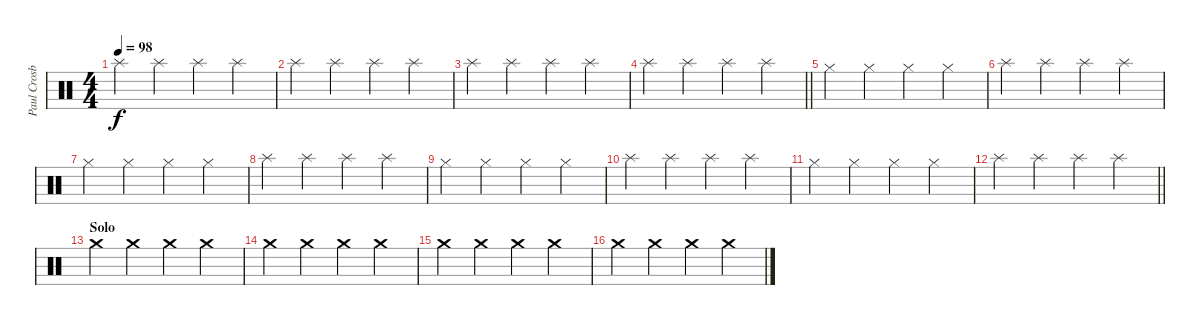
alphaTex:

\track ("Paul Crosby (Drums)" "Paul Crosb") {instrument percussion}
\staff {score}
\articulation defaults
\ts (4 4)
\tempo 98
\clef neutral
\ks c "Splash (hit)".4{dy f} "Splash (hit)".4 "Splash (hit)".4 "Splash (hit)".4
|
"Splash (hit)".4 "Splash (hit)".4 "Splash (hit)".4 "Splash (hit)".4 |
"Splash (hit)".4 "Splash (hit)".4 "Splash (hit)".4 "Splash (hit)".4 |
\barLineRight lightlight "Splash (hit)".4 "Splash (hit)".4 "Splash (hit)".4 "Splash (hit)".4
|
"Hi-Hat (closed)".4 "Hi-Hat (closed)".4 "Hi-Hat (closed)".4 "Hi-Hat (closed)".4 |
"Splash (hit)".4 "Splash (hit)".4 "Splash (hit)".4 "Splash (hit)".4 |
"Hi-Hat (closed)".4 "Hi-Hat (closed)".4 "Hi-Hat (closed)".4 "Hi-Hat (closed)".4 |
"Splash (hit)".4 "Splash (hit)".4 "Splash (hit)".4 "Splash (hit)".4 |
"Hi-Hat (closed)".4 "Hi-Hat (closed)".4 "Hi-Hat (closed)".4 "Hi-Hat (closed)".4 |
"Splash (hit)".4 "Splash (hit)".4 "Splash (hit)".4 "Splash (hit)".4 |
"Hi-Hat (closed)".4 "Hi-Hat (closed)".4 "Hi-Hat (closed)".4 "Hi-Hat (closed)".4 |
\barLineRight lightlight "Splash (hit)".4 "Splash (hit)".4 "Splash (hit)".4 "Splash (hit)".4
|
\section ("" "Solo")
"Crash medium (hit)".4 "Crash medium (hit)".4 "Crash medium (hit)".4 "Crash medium (hit)".4 |
"Crash medium (hit)".4 "Crash medium (hit)".4 "Crash medium (hit)".4 "Crash medium (hit)".4 |
"Crash medium (hit)".4 "Crash medium (hit)".4 "Crash medium (hit)".4 "Crash medium (hit)".4 |
"Crash medium (hit)".4 "Crash medium (hit)".4 "Crash medium (hit)".4 "Crash medium (hit)".4
